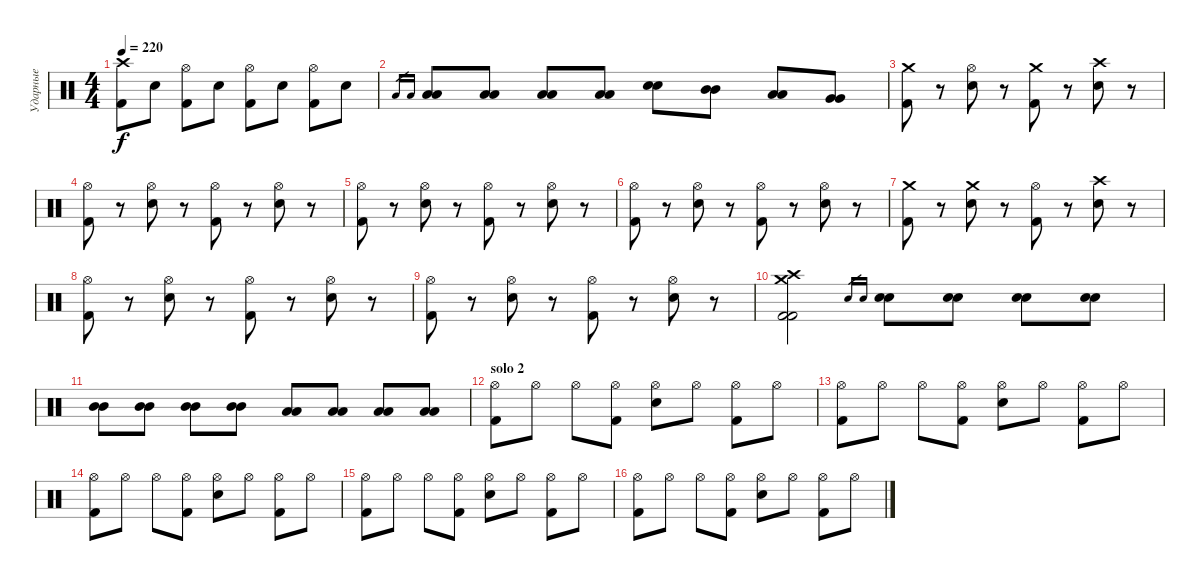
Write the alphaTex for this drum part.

\track ("Ударные" "Ударные") {instrument percussion}
\staff {score}
\articulation defaults
\ts (4 4)
\tempo 220
\clef neutral
\ks c
("Crash high (hit)" "Kick (hit) 2").8{dy f} "Electric Snare (hit)".8 ("Hi-Hat (open)" "Kick (hit) 2").8 "Electric Snare (hit)".8 ("Hi-Hat (open)" "Kick (hit) 2").8 "Electric Snare (hit)".8 ("Hi-Hat (open)" "Kick (hit) 2").8 "Electric Snare (hit)".8 |
"Low Tom (hit)".16{gr} "Low Tom (hit)".16{gr} ("Low Tom (hit)" "Low Tom (hit)").8 ("Low Tom (hit)" "Low Tom (hit)").8 ("Low Tom (hit)" "Low Tom (hit)").8 ("Low Tom (hit)" "Low Tom (hit)").8 ("Electric Snare (hit)" "Electric Snare (hit)").8 ("Mid Tom (hit)" "Mid Tom (hit)").8 ("Low Tom (hit)" "Low Tom (hit)").8 ("Very Low Tom (hit)" "Very Low Tom (hit)").8 |
("Crash medium (hit)" "Kick (hit) 2").8 r.8 ("Hi-Hat (open)" "Electric Snare (hit)").8 r.8 ("Crash medium (hit)" "Kick (hit) 2").8 r.8 ("Crash high (hit)" "Electric Snare (hit)").8 r.8 |
("Hi-Hat (open)" "Kick (hit) 2").8 r.8 ("Hi-Hat (open)" "Electric Snare (hit)").8 r.8 ("Hi-Hat (open)" "Kick (hit) 2").8 r.8 ("Hi-Hat (open)" "Electric Snare (hit)").8 r.8 |
("Hi-Hat (open)" "Kick (hit) 2").8 r.8 ("Hi-Hat (open)" "Electric Snare (hit)").8 r.8 ("Hi-Hat (open)" "Kick (hit) 2").8 r.8 ("Hi-Hat (open)" "Electric Snare (hit)").8 r.8 |
("Hi-Hat (open)" "Kick (hit) 2").8 r.8 ("Hi-Hat (open)" "Electric Snare (hit)").8 r.8 ("Hi-Hat (open)" "Kick (hit) 2").8 r.8 ("Hi-Hat (open)" "Electric Snare (hit)").8 r.8 |
("Crash medium (hit)" "Kick (hit) 2").8 r.8 ("Crash medium (hit)" "Electric Snare (hit)").8 r.8 ("Hi-Hat (open)" "Kick (hit) 2").8 r.8 ("Crash high (hit)" "Electric Snare (hit)").8 r.8 |
("Hi-Hat (open)" "Kick (hit) 2").8 r.8 ("Hi-Hat (open)" "Electric Snare (hit)").8 r.8 ("Hi-Hat (open)" "Kick (hit) 2").8 r.8 ("Hi-Hat (open)" "Electric Snare (hit)").8 r.8 |
("Hi-Hat (open)" "Kick (hit) 2").8 r.8 ("Hi-Hat (open)" "Electric Snare (hit)").8 r.8 ("Hi-Hat (open)" "Kick (hit) 2").8 r.8 ("Hi-Hat (open)" "Electric Snare (hit)").8 r.8 |
("Crash medium (hit)" "Crash high (hit)" "Kick (hit) 2" "Kick (hit) 2").2 "Electric Snare (hit)".16{gr} "Electric Snare (hit)".16{gr} ("Electric Snare (hit)" "Electric Snare (hit)").8 ("Electric Snare (hit)" "Electric Snare (hit)").8 ("Electric Snare (hit)" "Electric Snare (hit)").8 ("Electric Snare (hit)" "Electric Snare (hit)").8 |
("Mid Tom (hit)" "Mid Tom (hit)").8 ("Mid Tom (hit)" "Mid Tom (hit)").8 ("Mid Tom (hit)" "Mid Tom (hit)").8 ("Mid Tom (hit)" "Mid Tom (hit)").8 ("Low Tom (hit)" "Low Tom (hit)").8 ("Low Tom (hit)" "Low Tom (hit)").8 ("Low Tom (hit)" "Low Tom (hit)").8 ("Low Tom (hit)" "Low Tom (hit)").8 |
\section ("" "solo 2")
("Hi-Hat (open)" "Kick (hit) 2").8 "Hi-Hat (open)".8 "Hi-Hat (open)".8 ("Hi-Hat (open)" "Kick (hit) 2").8 ("Hi-Hat (open)" "Electric Snare (hit)").8 "Hi-Hat (open)".8 ("Hi-Hat (open)" "Kick (hit) 2").8 "Hi-Hat (open)".8 |
("Hi-Hat (open)" "Kick (hit) 2").8 "Hi-Hat (open)".8 "Hi-Hat (open)".8 ("Hi-Hat (open)" "Kick (hit) 2").8 ("Hi-Hat (open)" "Electric Snare (hit)").8 "Hi-Hat (open)".8 ("Hi-Hat (open)" "Kick (hit) 2").8 "Hi-Hat (open)".8 |
("Hi-Hat (open)" "Kick (hit) 2").8 "Hi-Hat (open)".8 "Hi-Hat (open)".8 ("Hi-Hat (open)" "Kick (hit) 2").8 ("Hi-Hat (open)" "Electric Snare (hit)").8 "Hi-Hat (open)".8 ("Hi-Hat (open)" "Kick (hit) 2").8 "Hi-Hat (open)".8 |
("Hi-Hat (open)" "Kick (hit) 2").8 "Hi-Hat (open)".8 "Hi-Hat (open)".8 ("Hi-Hat (open)" "Kick (hit) 2").8 ("Hi-Hat (open)" "Electric Snare (hit)").8 "Hi-Hat (open)".8 ("Hi-Hat (open)" "Kick (hit) 2").8 "Hi-Hat (open)".8 |
("Hi-Hat (open)" "Kick (hit) 2").8 "Hi-Hat (open)".8 "Hi-Hat (open)".8 ("Hi-Hat (open)" "Kick (hit) 2").8 ("Hi-Hat (open)" "Electric Snare (hit)").8 "Hi-Hat (open)".8 ("Hi-Hat (open)" "Kick (hit) 2").8 "Hi-Hat (open)".8
